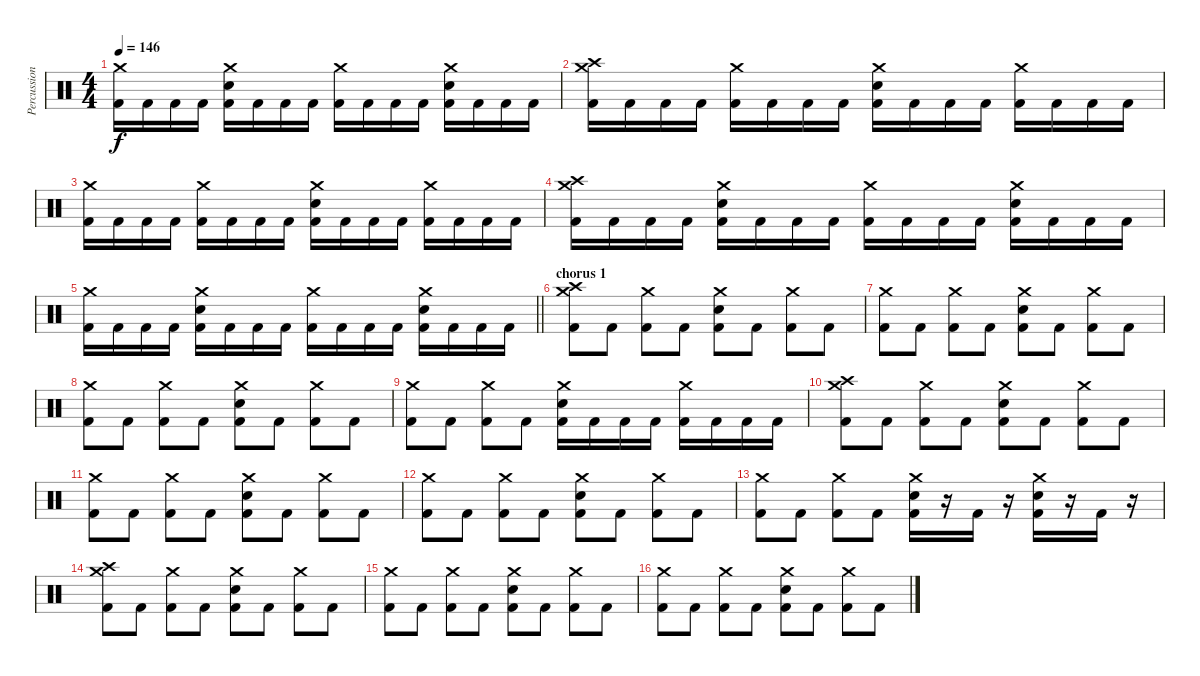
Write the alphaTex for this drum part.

\track ("Percussion" "Percussion") {instrument percussion}
\staff {score}
\articulation defaults
\ts (4 4)
\tempo 146
\clef neutral
\ks c
("Crash medium (hit)" "Kick (hit) 2").16{dy f} "Kick (hit) 2".16 "Kick (hit) 2".16 "Kick (hit) 2".16 ("Crash medium (hit)" "Snare (hit) 2" "Kick (hit) 2").16 "Kick (hit) 2".16 "Kick (hit) 2".16 "Kick (hit) 2".16 ("Crash medium (hit)" "Kick (hit) 2").16 "Kick (hit) 2".16 "Kick (hit) 2".16 "Kick (hit) 2".16 ("Crash medium (hit)" "Snare (hit) 2" "Kick (hit) 2").16 "Kick (hit) 2".16 "Kick (hit) 2".16 "Kick (hit) 2".16 |
("Crash high (hit)" "Crash medium (hit)" "Kick (hit) 2").16 "Kick (hit) 2".16 "Kick (hit) 2".16 "Kick (hit) 2".16 ("Crash medium (hit)" "Kick (hit) 2").16 "Kick (hit) 2".16 "Kick (hit) 2".16 "Kick (hit) 2".16 ("Crash medium (hit)" "Snare (hit) 2" "Kick (hit) 2").16 "Kick (hit) 2".16 "Kick (hit) 2".16 "Kick (hit) 2".16 ("Crash medium (hit)" "Kick (hit) 2").16 "Kick (hit) 2".16 "Kick (hit) 2".16 "Kick (hit) 2".16 |
("Crash medium (hit)" "Kick (hit) 2").16 "Kick (hit) 2".16 "Kick (hit) 2".16 "Kick (hit) 2".16 ("Crash medium (hit)" "Kick (hit) 2").16 "Kick (hit) 2".16 "Kick (hit) 2".16 "Kick (hit) 2".16 ("Crash medium (hit)" "Snare (hit) 2" "Kick (hit) 2").16 "Kick (hit) 2".16 "Kick (hit) 2".16 "Kick (hit) 2".16 ("Crash medium (hit)" "Kick (hit) 2").16 "Kick (hit) 2".16 "Kick (hit) 2".16 "Kick (hit) 2".16 |
("Crash high (hit)" "Crash medium (hit)" "Kick (hit) 2").16 "Kick (hit) 2".16 "Kick (hit) 2".16 "Kick (hit) 2".16 ("Crash medium (hit)" "Snare (hit) 2" "Kick (hit) 2").16 "Kick (hit) 2".16 "Kick (hit) 2".16 "Kick (hit) 2".16 ("Crash medium (hit)" "Kick (hit) 2").16 "Kick (hit) 2".16 "Kick (hit) 2".16 "Kick (hit) 2".16 ("Crash medium (hit)" "Snare (hit) 2" "Kick (hit) 2").16 "Kick (hit) 2".16 "Kick (hit) 2".16 "Kick (hit) 2".16 |
\barLineRight lightlight
("Crash medium (hit)" "Kick (hit) 2").16 "Kick (hit) 2".16 "Kick (hit) 2".16 "Kick (hit) 2".16 ("Crash medium (hit)" "Snare (hit) 2" "Kick (hit) 2").16 "Kick (hit) 2".16 "Kick (hit) 2".16 "Kick (hit) 2".16 ("Crash medium (hit)" "Kick (hit) 2").16 "Kick (hit) 2".16 "Kick (hit) 2".16 "Kick (hit) 2".16 ("Crash medium (hit)" "Snare (hit) 2" "Kick (hit) 2").16 "Kick (hit) 2".16 "Kick (hit) 2".16 "Kick (hit) 2".16 |
\section ("" "chorus 1")
("Crash high (hit)" "Crash medium (hit)" "Kick (hit) 2").8 "Kick (hit) 2".8 ("Crash medium (hit)" "Kick (hit) 2").8 "Kick (hit) 2".8 ("Crash medium (hit)" "Snare (hit) 2" "Kick (hit) 2").8 "Kick (hit) 2".8 ("Crash medium (hit)" "Kick (hit) 2").8 "Kick (hit) 2".8 |
("Crash medium (hit)" "Kick (hit) 2").8 "Kick (hit) 2".8 ("Crash medium (hit)" "Kick (hit) 2").8 "Kick (hit) 2".8 ("Crash medium (hit)" "Snare (hit) 2" "Kick (hit) 2").8 "Kick (hit) 2".8 ("Crash medium (hit)" "Kick (hit) 2").8 "Kick (hit) 2".8 |
("Crash medium (hit)" "Kick (hit) 2").8 "Kick (hit) 2".8 ("Crash medium (hit)" "Kick (hit) 2").8 "Kick (hit) 2".8 ("Crash medium (hit)" "Snare (hit) 2" "Kick (hit) 2").8 "Kick (hit) 2".8 ("Crash medium (hit)" "Kick (hit) 2").8 "Kick (hit) 2".8 |
("Crash medium (hit)" "Kick (hit) 2").8 "Kick (hit) 2".8 ("Crash medium (hit)" "Kick (hit) 2").8 "Kick (hit) 2".8 ("Crash medium (hit)" "Snare (hit) 2" "Kick (hit) 2").16 "Kick (hit) 2".16 "Kick (hit) 2".16 "Kick (hit) 2".16 ("Crash medium (hit)" "Kick (hit) 2").16 "Kick (hit) 2".16 "Kick (hit) 2".16 "Kick (hit) 2".16 |
("Crash high (hit)" "Crash medium (hit)" "Kick (hit) 2").8 "Kick (hit) 2".8 ("Crash medium (hit)" "Kick (hit) 2").8 "Kick (hit) 2".8 ("Crash medium (hit)" "Snare (hit) 2" "Kick (hit) 2").8 "Kick (hit) 2".8 ("Crash medium (hit)" "Kick (hit) 2").8 "Kick (hit) 2".8 |
("Crash medium (hit)" "Kick (hit) 2").8 "Kick (hit) 2".8 ("Crash medium (hit)" "Kick (hit) 2").8 "Kick (hit) 2".8 ("Crash medium (hit)" "Snare (hit) 2" "Kick (hit) 2").8 "Kick (hit) 2".8 ("Crash medium (hit)" "Kick (hit) 2").8 "Kick (hit) 2".8 |
("Crash medium (hit)" "Kick (hit) 2").8 "Kick (hit) 2".8 ("Crash medium (hit)" "Kick (hit) 2").8 "Kick (hit) 2".8 ("Crash medium (hit)" "Snare (hit) 2" "Kick (hit) 2").8 "Kick (hit) 2".8 ("Crash medium (hit)" "Kick (hit) 2").8 "Kick (hit) 2".8 |
("Crash medium (hit)" "Kick (hit) 2").8 "Kick (hit) 2".8 ("Crash medium (hit)" "Kick (hit) 2").8 "Kick (hit) 2".8 ("Crash medium (hit)" "Snare (hit) 2" "Kick (hit) 2").16 r.16 "Kick (hit) 2".16 r.16 ("Crash medium (hit)" "Snare (hit) 2" "Kick (hit) 2").16 r.16 "Kick (hit) 2".16 r.16 |
("Crash high (hit)" "Crash medium (hit)" "Kick (hit) 2").8 "Kick (hit) 2".8 ("Crash medium (hit)" "Kick (hit) 2").8 "Kick (hit) 2".8 ("Crash medium (hit)" "Snare (hit) 2" "Kick (hit) 2").8 "Kick (hit) 2".8 ("Crash medium (hit)" "Kick (hit) 2").8 "Kick (hit) 2".8 |
("Crash medium (hit)" "Kick (hit) 2").8 "Kick (hit) 2".8 ("Crash medium (hit)" "Kick (hit) 2").8 "Kick (hit) 2".8 ("Crash medium (hit)" "Snare (hit) 2" "Kick (hit) 2").8 "Kick (hit) 2".8 ("Crash medium (hit)" "Kick (hit) 2").8 "Kick (hit) 2".8 |
("Crash medium (hit)" "Kick (hit) 2").8 "Kick (hit) 2".8 ("Crash medium (hit)" "Kick (hit) 2").8 "Kick (hit) 2".8 ("Crash medium (hit)" "Snare (hit) 2" "Kick (hit) 2").8 "Kick (hit) 2".8 ("Crash medium (hit)" "Kick (hit) 2").8 "Kick (hit) 2".8
